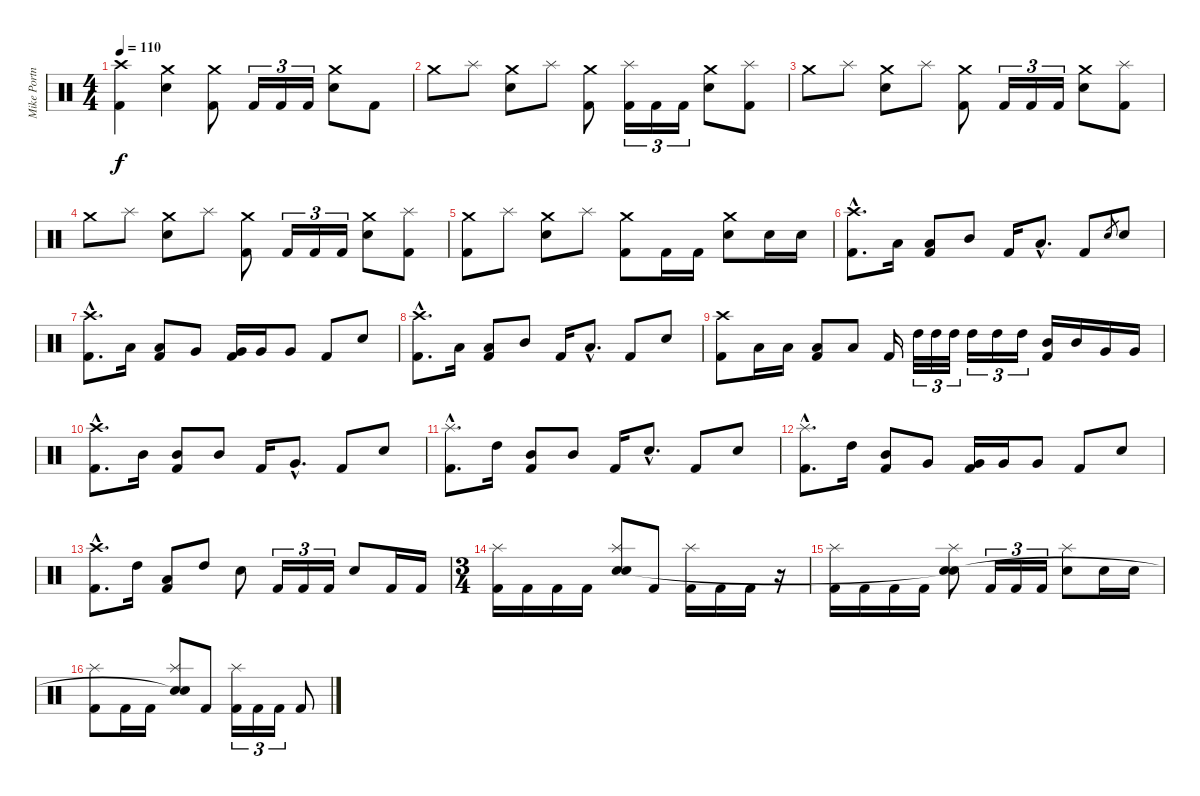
\track ("Mike Portnoy - Drums" "Mike Portn") {instrument percussion}
\staff {score}
\articulation defaults
\ts (4 4)
\tempo 110
\clef neutral
\ks c
("Crash high (hit)" "Kick (hit) 2").4{dy f} ("Crash medium (hit)" "Electric Snare (hit)").4 ("Crash medium (hit)" "Kick (hit) 2").8 "Kick (hit) 2".16{tu (3 2)} "Kick (hit) 2".16{tu (3 2)} "Kick (hit) 2".16{tu (3 2)} ("Crash medium (hit)" "Electric Snare (hit)").8 "Kick (hit) 2".8 |
"Crash medium (hit)".8 "Splash (hit)".8 ("Crash medium (hit)" "Electric Snare (hit)").8 "Splash (hit)".8 ("Crash medium (hit)" "Kick (hit) 2").8 ("Splash (hit)" "Kick (hit) 2").16{tu (3 2)} "Kick (hit) 2".16{tu (3 2)} "Kick (hit) 2".16{tu (3 2)} ("Crash medium (hit)" "Electric Snare (hit)").8 ("Splash (hit)" "Kick (hit) 2").8 |
"Crash medium (hit)".8 "Splash (hit)".8 ("Crash medium (hit)" "Electric Snare (hit)").8 "Splash (hit)".8 ("Crash medium (hit)" "Kick (hit) 2").8 "Kick (hit) 2".16{tu (3 2)} "Kick (hit) 2".16{tu (3 2)} "Kick (hit) 2".16{tu (3 2)} ("Crash medium (hit)" "Electric Snare (hit)").8 ("Splash (hit)" "Kick (hit) 2").8 |
"Crash medium (hit)".8 "Splash (hit)".8 ("Crash medium (hit)" "Electric Snare (hit)").8 "Splash (hit)".8 ("Crash medium (hit)" "Kick (hit) 2").8 "Kick (hit) 2".16{tu (3 2)} "Kick (hit) 2".16{tu (3 2)} "Kick (hit) 2".16{tu (3 2)} ("Crash medium (hit)" "Electric Snare (hit)").8 ("Splash (hit)" "Kick (hit) 2").8 |
("Crash medium (hit)" "Kick (hit) 2").8 "Splash (hit)".8 ("Crash medium (hit)" "Electric Snare (hit)").8 "Splash (hit)".8 ("Crash medium (hit)" "Kick (hit) 2").8 "Kick (hit) 2".16 "Kick (hit) 2".16 ("Crash medium (hit)" "Electric Snare (hit)").8 "Electric Snare (hit)".16 "Electric Snare (hit)".16 |
("Crash high (hit)"{hac} "Kick (hit) 2"{hac}).8{d} "Low Tom (hit)".16 ("Low Tom (hit)" "Kick (hit) 2").8 "Mid Tom (hit)".8 "Kick (hit) 2".16 "Low Tom (hit)"{hac}.8{d} "Kick (hit) 2".8 "Electric Snare (hit)".8{gr} "Electric Snare (hit)".8 |
("Crash high (hit)"{hac} "Kick (hit) 2"{hac}).8{d} "Low Tom (hit)".16 ("Low Tom (hit)" "Kick (hit) 2").8 "Very Low Tom (hit)".8 ("Very Low Tom (hit)" "Kick (hit) 2").16 "Very Low Tom (hit)".16 "Very Low Tom (hit)".8 "Kick (hit) 2".8 "Electric Snare (hit)".8 |
("Crash high (hit)"{hac} "Kick (hit) 2"{hac}).8{d} "Low Tom (hit)".16 ("Low Tom (hit)" "Kick (hit) 2").8 "Mid Tom (hit)".8 "Kick (hit) 2".16 "Low Tom (hit)"{hac}.8{d} "Kick (hit) 2".8 "Electric Snare (hit)".8 |
("Crash high (hit)" "Kick (hit) 2").8 "Low Tom (hit)".16 "Low Tom (hit)".16 ("Low Tom (hit)" "Kick (hit) 2").8 "Low Tom (hit)".8 "Kick (hit) 2".16 "High Tom (hit)".32{tu (3 2)} "High Tom (hit)".32{tu (3 2)} "High Tom (hit)".32{tu (3 2)} "High Tom (hit)".16{tu (3 2)} "High Tom (hit)".16{tu (3 2)} "High Tom (hit)".16{tu (3 2)} ("Mid Tom (hit)" "Kick (hit) 2").16 "Mid Tom (hit)".16 "Very Low Tom (hit)".16 "Very Low Tom (hit)".16 |
("Crash high (hit)"{hac} "Kick (hit) 2"{hac}).8{d} "Mid Tom (hit)".16 ("Mid Tom (hit)" "Kick (hit) 2").8 "Mid Tom (hit)".8 "Kick (hit) 2".16 "Very Low Tom (hit)"{hac}.8{d} "Kick (hit) 2".8 "Electric Snare (hit)".8 |
("Splash (hit)"{hac} "Kick (hit) 2"{hac}).8{d} "High Tom (hit)".16 ("Mid Tom (hit)" "Kick (hit) 2").8 "Mid Tom (hit)".8 "Kick (hit) 2".16 "Electric Snare (hit)"{hac}.8{d} "Kick (hit) 2".8 "Electric Snare (hit)".8 |
("Splash (hit)"{hac} "Kick (hit) 2"{hac}).8{d} "High Tom (hit)".16 ("Mid Tom (hit)" "Kick (hit) 2").8 "Very Low Tom (hit)".8 ("Very Low Tom (hit)" "Kick (hit) 2").16 "Very Low Tom (hit)".16 "Very Low Tom (hit)".8 "Kick (hit) 2".8 "Electric Snare (hit)".8 |
("Crash high (hit)"{hac} "Kick (hit) 2"{hac}).8{d} "High Tom (hit)".16 ("Low Tom (hit)" "Kick (hit) 2").8 "High Tom (hit)".8 "Electric Snare (hit)".8 "Kick (hit) 2".16{tu (3 2)} "Kick (hit) 2".16{tu (3 2)} "Kick (hit) 2".16{tu (3 2)} "Electric Snare (hit)".8 "Kick (hit) 2".16 "Kick (hit) 2".16 |
\ts (3 4)
("Splash (hit)" "Kick (hit) 2").16 "Kick (hit) 2".16 "Kick (hit) 2".16 "Kick (hit) 2".16 ("Splash (hit)" "Electric Snare (hit)" "Snare (hit)").8 "Kick (hit) 2".8 ("Splash (hit)" "Kick (hit) 2").16 "Kick (hit) 2".16 "Kick (hit) 2".16 r.16 |
("Splash (hit)" "Kick (hit) 2").16 "Kick (hit) 2".16 "Kick (hit) 2".16 "Kick (hit) 2".16 ("Splash (hit)" "Electric Snare (hit)" "Snare (hit)"{t}).8 "Kick (hit) 2".16{tu (3 2)} "Kick (hit) 2".16{tu (3 2)} "Kick (hit) 2".16{tu (3 2)} ("Splash (hit)" "Electric Snare (hit)").8 "Electric Snare (hit)".16 "Electric Snare (hit)".16 |
("Splash (hit)" "Kick (hit) 2").8 "Kick (hit) 2".16 "Kick (hit) 2".16 ("Splash (hit)" "Electric Snare (hit)" "Snare (hit)"{t}).8 "Kick (hit) 2".8 ("Splash (hit)" "Kick (hit) 2").16{tu (3 2)} "Kick (hit) 2".16{tu (3 2)} "Kick (hit) 2".16{tu (3 2)} "Kick (hit) 2".8
